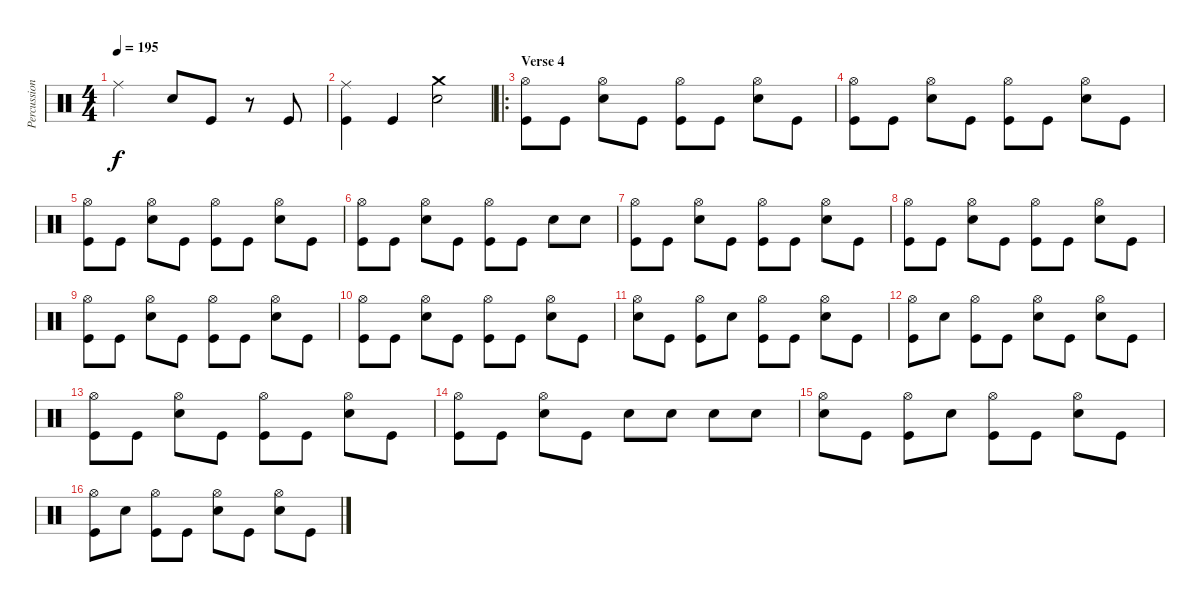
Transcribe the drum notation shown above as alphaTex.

\track ("Percussion" "Percussion") {instrument percussion}
\staff {score}
\articulation defaults
\ts (4 4)
\tempo 195
\clef neutral
\ks c "Ride (middle)".2{dy f} "Snare (hit) 2".8 "Kick (hit)".8
r.8 "Kick (hit)".8 |
("Ride (middle)" "Kick (hit)").4 "Kick (hit)".4 ("Crash medium (hit)" "Snare (hit) 2").2 |
\ro
\section ("" "Verse 4")
("Hi-Hat (open)" "Kick (hit)").8 "Kick (hit)".8 ("Hi-Hat (open)" "Snare (hit) 2").8 "Kick (hit)".8 ("Hi-Hat (open)" "Kick (hit)").8 "Kick (hit)".8 ("Hi-Hat (open)" "Snare (hit) 2").8 "Kick (hit)".8 |
("Hi-Hat (open)" "Kick (hit)").8 "Kick (hit)".8 ("Hi-Hat (open)" "Snare (hit) 2").8 "Kick (hit)".8 ("Hi-Hat (open)" "Kick (hit)").8 "Kick (hit)".8 ("Hi-Hat (open)" "Snare (hit) 2").8 "Kick (hit)".8 |
("Hi-Hat (open)" "Kick (hit)").8 "Kick (hit)".8 ("Hi-Hat (open)" "Snare (hit) 2").8 "Kick (hit)".8 ("Hi-Hat (open)" "Kick (hit)").8 "Kick (hit)".8 ("Hi-Hat (open)" "Snare (hit) 2").8 "Kick (hit)".8 |
("Hi-Hat (open)" "Kick (hit)").8 "Kick (hit)".8 ("Hi-Hat (open)" "Snare (hit) 2").8 "Kick (hit)".8 ("Hi-Hat (open)" "Kick (hit)").8 "Kick (hit)".8 "Snare (hit) 2".8 "Snare (hit) 2".8 |
("Hi-Hat (open)" "Kick (hit)").8 "Kick (hit)".8 ("Hi-Hat (open)" "Snare (hit) 2").8 "Kick (hit)".8 ("Hi-Hat (open)" "Kick (hit)").8 "Kick (hit)".8 ("Hi-Hat (open)" "Snare (hit) 2").8 "Kick (hit)".8 |
("Hi-Hat (open)" "Kick (hit)").8 "Kick (hit)".8 ("Hi-Hat (open)" "Snare (hit) 2").8 "Kick (hit)".8 ("Hi-Hat (open)" "Kick (hit)").8 "Kick (hit)".8 ("Hi-Hat (open)" "Snare (hit) 2").8 "Kick (hit)".8 |
("Hi-Hat (open)" "Kick (hit)").8 "Kick (hit)".8 ("Hi-Hat (open)" "Snare (hit) 2").8 "Kick (hit)".8 ("Hi-Hat (open)" "Kick (hit)").8 "Kick (hit)".8 ("Hi-Hat (open)" "Snare (hit) 2").8 "Kick (hit)".8 |
("Hi-Hat (open)" "Kick (hit)").8 "Kick (hit)".8 ("Hi-Hat (open)" "Snare (hit) 2").8 "Kick (hit)".8 ("Hi-Hat (open)" "Kick (hit)").8 "Kick (hit)".8 ("Hi-Hat (open)" "Snare (hit) 2").8 "Kick (hit)".8 |
("Hi-Hat (open)" "Snare (hit) 2").8 "Kick (hit)".8 ("Hi-Hat (open)" "Kick (hit)").8 "Snare (hit) 2".8 ("Hi-Hat (open)" "Kick (hit)").8 "Kick (hit)".8 ("Hi-Hat (open)" "Snare (hit) 2").8 "Kick (hit)".8 |
("Hi-Hat (open)" "Kick (hit)").8 "Snare (hit) 2".8 ("Hi-Hat (open)" "Kick (hit)").8 "Kick (hit)".8 ("Hi-Hat (open)" "Snare (hit) 2").8 "Kick (hit)".8 ("Hi-Hat (open)" "Snare (hit) 2").8 "Kick (hit)".8 |
("Hi-Hat (open)" "Kick (hit)").8 "Kick (hit)".8 ("Hi-Hat (open)" "Snare (hit) 2").8 "Kick (hit)".8 ("Hi-Hat (open)" "Kick (hit)").8 "Kick (hit)".8 ("Hi-Hat (open)" "Snare (hit) 2").8 "Kick (hit)".8 |
("Hi-Hat (open)" "Kick (hit)").8 "Kick (hit)".8 ("Hi-Hat (open)" "Snare (hit) 2").8 "Kick (hit)".8 "Snare (hit) 2".8 "Snare (hit) 2".8 "Snare (hit) 2".8 "Snare (hit) 2".8 |
("Hi-Hat (open)" "Snare (hit) 2").8 "Kick (hit)".8 ("Hi-Hat (open)" "Kick (hit)").8 "Snare (hit) 2".8 ("Hi-Hat (open)" "Kick (hit)").8 "Kick (hit)".8 ("Hi-Hat (open)" "Snare (hit) 2").8 "Kick (hit)".8 |
("Hi-Hat (open)" "Kick (hit)").8 "Snare (hit) 2".8 ("Hi-Hat (open)" "Kick (hit)").8 "Kick (hit)".8 ("Hi-Hat (open)" "Snare (hit) 2").8 "Kick (hit)".8 ("Hi-Hat (open)" "Snare (hit) 2").8 "Kick (hit)".8
